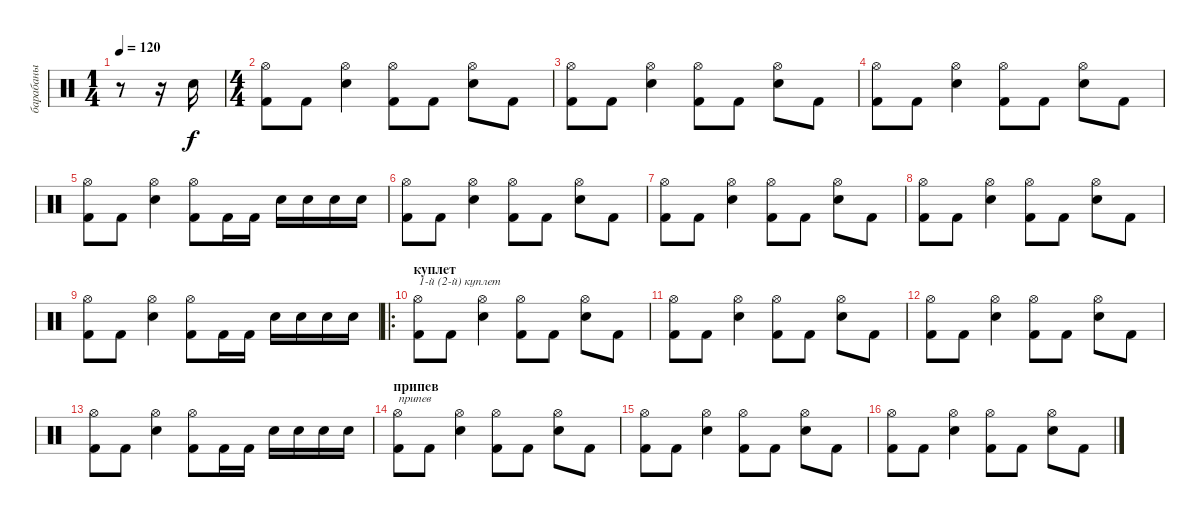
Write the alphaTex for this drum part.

\track ("барабаны" "барабаны") {instrument percussion}
\staff {score}
\articulation defaults
\ts (1 4)
\tempo 120
\clef neutral
\ks c
r.8{dy f} r.16 "Snare (hit) 2".16 |
\ts (4 4)
("Hi-Hat (open)" "Kick (hit) 2").8 "Kick (hit) 2".8 ("Hi-Hat (open)" "Snare (hit) 2").4 ("Hi-Hat (open)" "Kick (hit) 2").8 "Kick (hit) 2".8 ("Hi-Hat (open)" "Snare (hit) 2").8 "Kick (hit) 2".8 |
("Hi-Hat (open)" "Kick (hit) 2").8 "Kick (hit) 2".8 ("Hi-Hat (open)" "Snare (hit) 2").4 ("Hi-Hat (open)" "Kick (hit) 2").8 "Kick (hit) 2".8 ("Hi-Hat (open)" "Snare (hit) 2").8 "Kick (hit) 2".8 |
("Hi-Hat (open)" "Kick (hit) 2").8 "Kick (hit) 2".8 ("Hi-Hat (open)" "Snare (hit) 2").4 ("Hi-Hat (open)" "Kick (hit) 2").8 "Kick (hit) 2".8 ("Hi-Hat (open)" "Snare (hit) 2").8 "Kick (hit) 2".8 |
("Hi-Hat (open)" "Kick (hit) 2").8 "Kick (hit) 2".8 ("Hi-Hat (open)" "Snare (hit) 2").4 ("Hi-Hat (open)" "Kick (hit) 2").8 "Kick (hit) 2".16 "Kick (hit) 2".16 "Snare (hit) 2".16 "Snare (hit) 2".16 "Snare (hit) 2".16 "Snare (hit) 2".16 |
("Hi-Hat (open)" "Kick (hit) 2").8 "Kick (hit) 2".8 ("Hi-Hat (open)" "Snare (hit) 2").4 ("Hi-Hat (open)" "Kick (hit) 2").8 "Kick (hit) 2".8 ("Hi-Hat (open)" "Snare (hit) 2").8 "Kick (hit) 2".8 |
("Hi-Hat (open)" "Kick (hit) 2").8 "Kick (hit) 2".8 ("Hi-Hat (open)" "Snare (hit) 2").4 ("Hi-Hat (open)" "Kick (hit) 2").8 "Kick (hit) 2".8 ("Hi-Hat (open)" "Snare (hit) 2").8 "Kick (hit) 2".8 |
("Hi-Hat (open)" "Kick (hit) 2").8 "Kick (hit) 2".8 ("Hi-Hat (open)" "Snare (hit) 2").4 ("Hi-Hat (open)" "Kick (hit) 2").8 "Kick (hit) 2".8 ("Hi-Hat (open)" "Snare (hit) 2").8 "Kick (hit) 2".8 |
("Hi-Hat (open)" "Kick (hit) 2").8 "Kick (hit) 2".8 ("Hi-Hat (open)" "Snare (hit) 2").4 ("Hi-Hat (open)" "Kick (hit) 2").8 "Kick (hit) 2".16 "Kick (hit) 2".16 "Snare (hit) 2".16 "Snare (hit) 2".16 "Snare (hit) 2".16 "Snare (hit) 2".16 |
\ro
\section ("" "куплет")
("Hi-Hat (open)" "Kick (hit) 2").8{txt "1-й (2-й) куплет"} "Kick (hit) 2".8 ("Hi-Hat (open)" "Snare (hit) 2").4 ("Hi-Hat (open)" "Kick (hit) 2").8 "Kick (hit) 2".8 ("Hi-Hat (open)" "Snare (hit) 2").8 "Kick (hit) 2".8 |
("Hi-Hat (open)" "Kick (hit) 2").8 "Kick (hit) 2".8 ("Hi-Hat (open)" "Snare (hit) 2").4 ("Hi-Hat (open)" "Kick (hit) 2").8 "Kick (hit) 2".8 ("Hi-Hat (open)" "Snare (hit) 2").8 "Kick (hit) 2".8 |
("Hi-Hat (open)" "Kick (hit) 2").8 "Kick (hit) 2".8 ("Hi-Hat (open)" "Snare (hit) 2").4 ("Hi-Hat (open)" "Kick (hit) 2").8 "Kick (hit) 2".8 ("Hi-Hat (open)" "Snare (hit) 2").8 "Kick (hit) 2".8 |
("Hi-Hat (open)" "Kick (hit) 2").8 "Kick (hit) 2".8 ("Hi-Hat (open)" "Snare (hit) 2").4 ("Hi-Hat (open)" "Kick (hit) 2").8 "Kick (hit) 2".16 "Kick (hit) 2".16 "Snare (hit) 2".16 "Snare (hit) 2".16 "Snare (hit) 2".16 "Snare (hit) 2".16 |
\section ("" "припев")
("Hi-Hat (open)" "Kick (hit) 2").8{txt "припев"} "Kick (hit) 2".8 ("Hi-Hat (open)" "Snare (hit) 2").4 ("Hi-Hat (open)" "Kick (hit) 2").8 "Kick (hit) 2".8 ("Hi-Hat (open)" "Snare (hit) 2").8 "Kick (hit) 2".8 |
("Hi-Hat (open)" "Kick (hit) 2").8 "Kick (hit) 2".8 ("Hi-Hat (open)" "Snare (hit) 2").4 ("Hi-Hat (open)" "Kick (hit) 2").8 "Kick (hit) 2".8 ("Hi-Hat (open)" "Snare (hit) 2").8 "Kick (hit) 2".8 |
("Hi-Hat (open)" "Kick (hit) 2").8 "Kick (hit) 2".8 ("Hi-Hat (open)" "Snare (hit) 2").4 ("Hi-Hat (open)" "Kick (hit) 2").8 "Kick (hit) 2".8 ("Hi-Hat (open)" "Snare (hit) 2").8 "Kick (hit) 2".8
